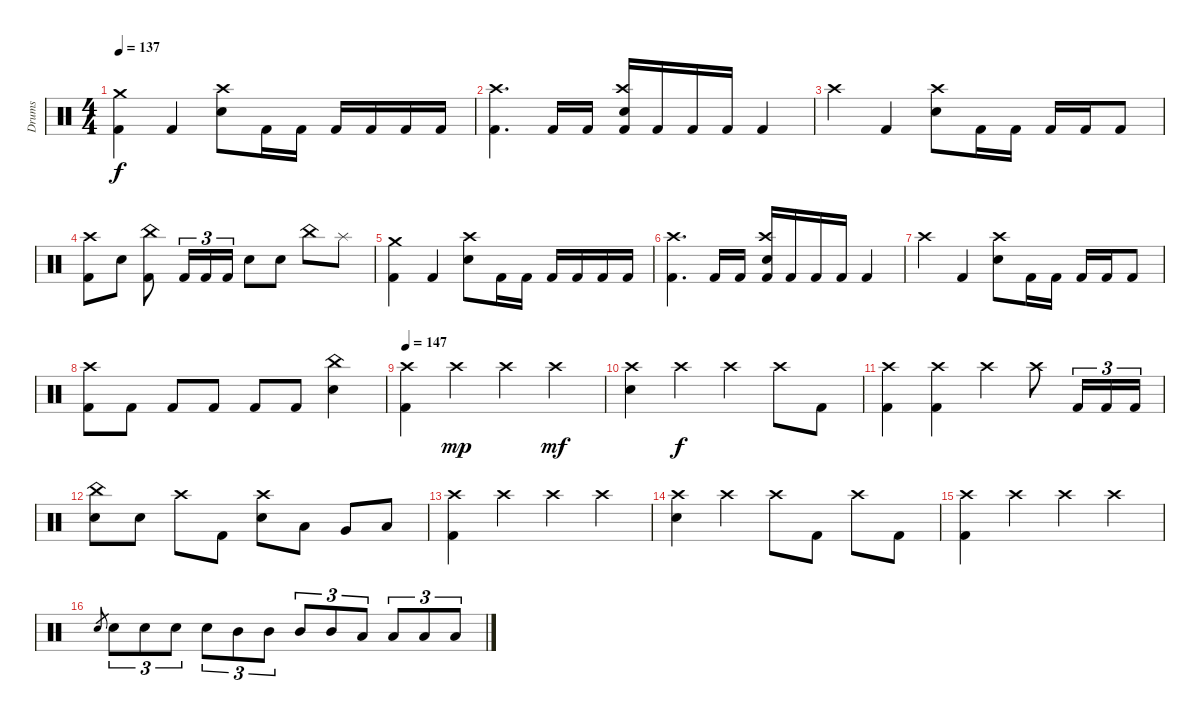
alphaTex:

\track ("Drums" "Drums") {instrument percussion}
\staff
\articulation defaults
\ts (4 4)
\tempo 137
\clef neutral
\ks c
("Crash medium (hit)" "Kick (hit) 2").4{dy f} "Kick (hit) 2".4 ("Crash high (hit)" "Electric Snare (hit)").8 "Kick (hit) 2".16 "Kick (hit) 2".16 "Kick (hit) 2".16 "Kick (hit) 2".16 "Kick (hit) 2".16 "Kick (hit) 2".16 |
("Crash high (hit)" "Kick (hit) 2").4{d} "Kick (hit) 2".16 "Kick (hit) 2".16 ("Crash high (hit)" "Electric Snare (hit)" "Kick (hit) 2").16 "Kick (hit) 2".16 "Kick (hit) 2".16 "Kick (hit) 2".16 "Kick (hit) 2".4 |
"Crash high (hit)".4 "Kick (hit) 2".4 ("Crash high (hit)" "Electric Snare (hit)").8 "Kick (hit) 2".16 "Kick (hit) 2".16 "Kick (hit) 2".16 "Kick (hit) 2".16 "Kick (hit) 2".8 |
("Crash high (hit)" "Kick (hit) 2").8 "Electric Snare (hit)".8 ("China (hit)" "Kick (hit) 2").8 "Kick (hit) 2".16{tu (3 2)} "Kick (hit) 2".16{tu (3 2)} "Kick (hit) 2".16{tu (3 2)} "Electric Snare (hit)".8 "Electric Snare (hit)".8 "China (hit)".8 "Splash (hit)".8 |
("Crash medium (hit)" "Kick (hit) 2").4 "Kick (hit) 2".4 ("Crash high (hit)" "Electric Snare (hit)").8 "Kick (hit) 2".16 "Kick (hit) 2".16 "Kick (hit) 2".16 "Kick (hit) 2".16 "Kick (hit) 2".16 "Kick (hit) 2".16 |
("Crash high (hit)" "Kick (hit) 2").4{d} "Kick (hit) 2".16 "Kick (hit) 2".16 ("Crash high (hit)" "Electric Snare (hit)" "Kick (hit) 2").16 "Kick (hit) 2".16 "Kick (hit) 2".16 "Kick (hit) 2".16 "Kick (hit) 2".4 |
"Crash high (hit)".4 "Kick (hit) 2".4 ("Crash high (hit)" "Electric Snare (hit)").8 "Kick (hit) 2".16 "Kick (hit) 2".16 "Kick (hit) 2".16 "Kick (hit) 2".16 "Kick (hit) 2".8 |
("Crash high (hit)" "Kick (hit) 2").8 "Kick (hit) 2".8 "Kick (hit) 2".8 "Kick (hit) 2".8 "Kick (hit) 2".8 "Kick (hit) 2".8 ("China (hit)" "Electric Snare (hit)").4 |
\tempo 147
("Crash high (hit)" "Kick (hit) 2").4 "Crash high (hit)".4{dy mp} "Crash high (hit)".4 "Crash high (hit)".4{dy mf} |
("Crash high (hit)" "Electric Snare (hit)").4 "Crash high (hit)".4{dy f} "Crash high (hit)".4 "Crash high (hit)".8 "Kick (hit) 2".8 |
("Crash high (hit)" "Kick (hit) 2").4 ("Crash high (hit)" "Kick (hit) 2").4 "Crash high (hit)".4 "Crash high (hit)".8 "Kick (hit) 2".16{tu (3 2)} "Kick (hit) 2".16{tu (3 2)} "Kick (hit) 2".16{tu (3 2)} |
("China (hit)" "Electric Snare (hit)").8 "Electric Snare (hit)".8 "Crash high (hit)".8 "Kick (hit) 2".8 ("Crash high (hit)" "Electric Snare (hit)").8 "Low Tom (hit)".8 "Very Low Tom (hit)".8 "Low Floor Tom (hit)".8 |
("Crash high (hit)" "Kick (hit) 2").4 "Crash high (hit)".4 "Crash high (hit)".4 "Crash high (hit)".4 |
("Crash high (hit)" "Electric Snare (hit)").4 "Crash high (hit)".4 "Crash high (hit)".8 "Kick (hit) 2".8 "Crash high (hit)".8 "Kick (hit) 2".8 |
("Crash high (hit)" "Kick (hit) 2").4 "Crash high (hit)".4 "Crash high (hit)".4 "Crash high (hit)".4 |
"Electric Snare (hit)".8{gr} "Electric Snare (hit)".8{tu (3 2)} "Electric Snare (hit)".8{tu (3 2)} "Electric Snare (hit)".8{tu (3 2)} "Electric Snare (hit)".8{tu (3 2)} "Mid Tom (hit)".8{tu (3 2)} "Mid Tom (hit)".8{tu (3 2)} "Mid Tom (hit)".8{tu (3 2)} "Mid Tom (hit)".8{tu (3 2)} "Low Tom (hit)".8{tu (3 2)} "Low Tom (hit)".8{tu (3 2)} "Low Tom (hit)".8{tu (3 2)} "Low Tom (hit)".8{tu (3 2)}
